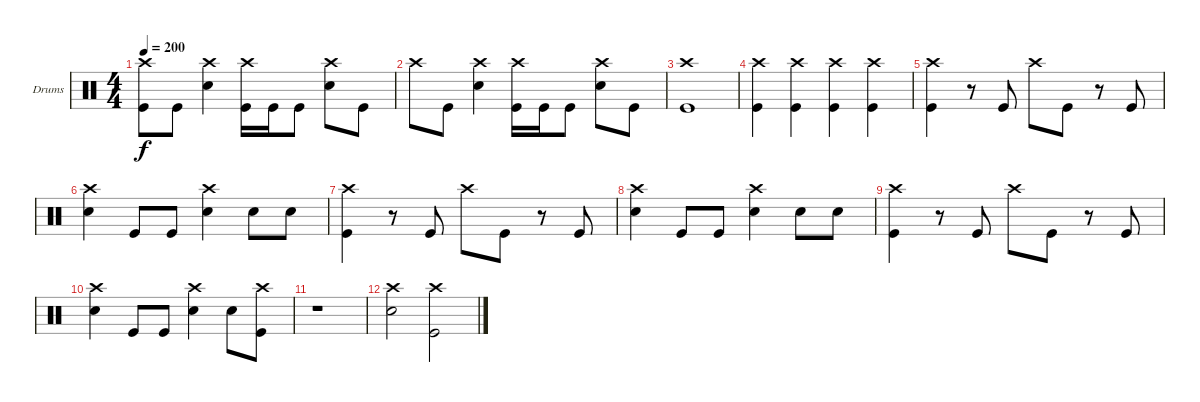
\bracketExtendMode groupsimilarinstruments
\firstSystemTrackNameOrientation horizontal
\otherSystemsTrackNameOrientation horizontal
\track ("Emile Bardou" "Drums") {instrument percussion}
\staff {score}
\articulation defaults
\ts (4 4)
\tempo 200
\clef neutral
\ks c
("Crash high (hit)" "Kick (hit)").8{dy f} "Kick (hit)".8 ("Crash high (hit)" "Snare (hit) 2").4 ("Crash high (hit)" "Kick (hit)").16 "Kick (hit)".16 "Kick (hit)".8 ("Crash high (hit)" "Snare (hit) 2").8 "Kick (hit)".8 |
"Crash high (hit)".8 "Kick (hit)".8 ("Crash high (hit)" "Snare (hit) 2").4 ("Crash high (hit)" "Kick (hit)").16 "Kick (hit)".16 "Kick (hit)".8 ("Crash high (hit)" "Snare (hit) 2").8 "Kick (hit)".8 |
("Kick (hit)" "Crash high (hit)").1 |
("Crash high (hit)" "Kick (hit)").4 ("Crash high (hit)" "Kick (hit)").4 ("Crash high (hit)" "Kick (hit)").4 ("Crash high (hit)" "Kick (hit)").4 |
("Crash high (hit)" "Kick (hit)").4 r.8 "Kick (hit)".8 "Crash high (hit)".8 "Kick (hit)".8 r.8 "Kick (hit)".8 |
("Crash high (hit)" "Snare (hit) 2").4 "Kick (hit)".8 "Kick (hit)".8 ("Crash high (hit)" "Snare (hit) 2").4 "Snare (hit) 2".8 "Snare (hit) 2".8 |
("Crash high (hit)" "Kick (hit)").4 r.8 "Kick (hit)".8 "Crash high (hit)".8 "Kick (hit)".8 r.8 "Kick (hit)".8 |
("Crash high (hit)" "Snare (hit) 2").4 "Kick (hit)".8 "Kick (hit)".8 ("Crash high (hit)" "Snare (hit) 2").4 "Snare (hit) 2".8 "Snare (hit) 2".8 |
("Crash high (hit)" "Kick (hit)").4 r.8 "Kick (hit)".8 "Crash high (hit)".8 "Kick (hit)".8 r.8 "Kick (hit)".8 |
("Crash high (hit)" "Snare (hit) 2").4 "Kick (hit)".8 "Kick (hit)".8 ("Crash high (hit)" "Snare (hit) 2").4 "Snare (hit) 2".8 ("Crash high (hit)" "Kick (hit)").8 |
r.1 |
("Crash high (hit)" "Snare (hit) 2").2 ("Crash high (hit)" "Kick (hit)").2
